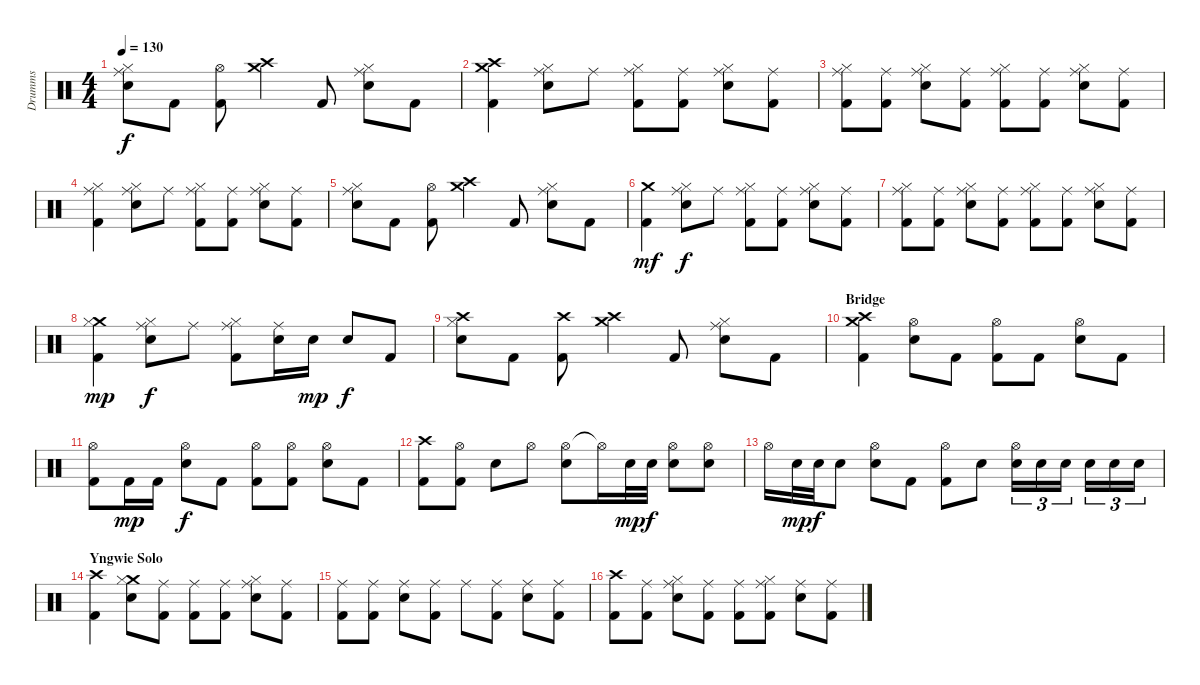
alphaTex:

\track ("Drumms" "Drumms") {instrument percussion}
\staff {score}
\articulation defaults
\ts (4 4)
\tempo 130
\clef neutral
\ks c
("Ride (middle)" "Hi-Hat (closed)" "Electric Snare (hit)").8{dy f} "Kick (hit) 2".8 ("Hi-Hat (open)" "Kick (hit) 2").8 ("Crash medium (hit)" "Crash high (hit)").4 "Kick (hit) 2".8 ("Ride (middle)" "Hi-Hat (closed)" "Electric Snare (hit)").8 "Kick (hit) 2".8 |
("Crash medium (hit)" "Crash high (hit)" "Kick (hit) 2").4 ("Ride (middle)" "Hi-Hat (closed)" "Electric Snare (hit)").8 "Ride (middle)".8 ("Ride (middle)" "Hi-Hat (closed)" "Kick (hit) 2").8 ("Ride (middle)" "Kick (hit) 2").8 ("Ride (middle)" "Hi-Hat (closed)" "Electric Snare (hit)").8 ("Ride (middle)" "Kick (hit) 2").8 |
("Ride (middle)" "Hi-Hat (closed)" "Kick (hit) 2").8 ("Ride (middle)" "Kick (hit) 2").8 ("Ride (middle)" "Hi-Hat (closed)" "Electric Snare (hit)").8 ("Ride (middle)" "Kick (hit) 2").8 ("Ride (middle)" "Hi-Hat (closed)" "Kick (hit) 2").8 ("Ride (middle)" "Kick (hit) 2").8 ("Ride (middle)" "Hi-Hat (closed)" "Electric Snare (hit)").8 ("Ride (middle)" "Kick (hit) 2").8 |
("Ride (middle)" "Hi-Hat (closed)" "Kick (hit) 2").4 ("Ride (middle)" "Hi-Hat (closed)" "Electric Snare (hit)").8 "Ride (middle)".8 ("Ride (middle)" "Hi-Hat (closed)" "Kick (hit) 2").8 ("Ride (middle)" "Kick (hit) 2").8 ("Ride (middle)" "Hi-Hat (closed)" "Electric Snare (hit)").8 ("Ride (middle)" "Kick (hit) 2").8 |
("Ride (middle)" "Hi-Hat (closed)" "Electric Snare (hit)").8 "Kick (hit) 2".8 ("Hi-Hat (open)" "Kick (hit) 2").8 ("Crash medium (hit)" "Crash high (hit)").4 "Kick (hit) 2".8 ("Ride (middle)" "Hi-Hat (closed)" "Electric Snare (hit)").8 "Kick (hit) 2".8 |
("Crash medium (hit)" "Kick (hit) 2").4{dy mf} ("Ride (middle)" "Hi-Hat (closed)" "Electric Snare (hit)").8{dy f} "Ride (middle)".8 ("Ride (middle)" "Hi-Hat (closed)" "Kick (hit) 2").8 ("Ride (middle)" "Kick (hit) 2").8 ("Ride (middle)" "Hi-Hat (closed)" "Electric Snare (hit)").8 ("Ride (middle)" "Kick (hit) 2").8 |
("Ride (middle)" "Hi-Hat (closed)" "Kick (hit) 2").8 ("Ride (middle)" "Kick (hit) 2").8 ("Ride (middle)" "Hi-Hat (closed)" "Electric Snare (hit)").8 ("Ride (middle)" "Kick (hit) 2").8 ("Ride (middle)" "Hi-Hat (closed)" "Kick (hit) 2").8 ("Ride (middle)" "Kick (hit) 2").8 ("Ride (middle)" "Hi-Hat (closed)" "Electric Snare (hit)").8 ("Ride (middle)" "Kick (hit) 2").8 |
("Crash medium (hit)" "Hi-Hat (closed)" "Kick (hit) 2").4{dy mp} ("Ride (middle)" "Hi-Hat (closed)" "Electric Snare (hit)").8{dy f} "Ride (middle)".8 ("Ride (middle)" "Hi-Hat (closed)" "Kick (hit) 2").8 ("Ride (middle)" "Electric Snare (hit)").16 "Electric Snare (hit)".16{dy mp} "Electric Snare (hit)".8{dy f} "Kick (hit) 2".8 |
("Crash high (hit)" "Hi-Hat (closed)" "Electric Snare (hit)").8 "Kick (hit) 2".8 ("Crash high (hit)" "Kick (hit) 2").8 ("Crash medium (hit)" "Crash high (hit)").4 "Kick (hit) 2".8 ("Ride (middle)" "Hi-Hat (closed)" "Electric Snare (hit)").8 "Kick (hit) 2".8 |
\section ("" "Bridge")
("Crash medium (hit)" "Crash high (hit)" "Kick (hit) 2").4 ("Hi-Hat (open)" "Electric Snare (hit)").8 "Kick (hit) 2".8 ("Hi-Hat (open)" "Kick (hit) 2").8 "Kick (hit) 2".8 ("Hi-Hat (open)" "Electric Snare (hit)").8 "Kick (hit) 2".8 |
("Hi-Hat (open)" "Kick (hit) 2").8 "Kick (hit) 2".16{dy mp} "Kick (hit) 2".16 ("Hi-Hat (open)" "Electric Snare (hit)").8{dy f} "Kick (hit) 2".8 ("Hi-Hat (open)" "Kick (hit) 2").8 ("Hi-Hat (open)" "Kick (hit) 2").8 ("Hi-Hat (open)" "Electric Snare (hit)").8 "Kick (hit) 2".8 |
("Crash high (hit)" "Kick (hit) 2").8 ("Hi-Hat (open)" "Kick (hit) 2").8 "Electric Snare (hit)".8 "Hi-Hat (open)".8 ("Hi-Hat (open)" "Electric Snare (hit)").8 "Hi-Hat (open)"{t}.16 "Electric Snare (hit)".32{dy mp} "Electric Snare (hit)".32{dy f} ("Hi-Hat (open)" "Electric Snare (hit)").8 ("Hi-Hat (open)" "Electric Snare (hit)").8 |
"Hi-Hat (open)".16 "Electric Snare (hit)".32{dy mp} "Electric Snare (hit)".32{dy f} "Electric Snare (hit)".8 ("Hi-Hat (open)" "Electric Snare (hit)").8 "Kick (hit) 2".8 ("Hi-Hat (open)" "Kick (hit) 2").8 "Electric Snare (hit)".8 ("Hi-Hat (open)" "Electric Snare (hit)").16{tu (3 2)} "Electric Snare (hit)".16{tu (3 2)} "Electric Snare (hit)".16{tu (3 2)} "Electric Snare (hit)".16{tu (3 2)} "Electric Snare (hit)".16{tu (3 2)} "Electric Snare (hit)".16{tu (3 2)} |
\section ("" "Yngwie Solo")
("Crash high (hit)" "Kick (hit) 2").4 ("Crash medium (hit)" "Hi-Hat (closed)" "Electric Snare (hit)").8 ("Ride (middle)" "Kick (hit) 2").8 ("Ride (middle)" "Kick (hit) 2").8 ("Ride (middle)" "Kick (hit) 2").8 ("Ride (middle)" "Hi-Hat (closed)" "Electric Snare (hit)").8 ("Ride (middle)" "Kick (hit) 2").8 |
("Ride (middle)" "Kick (hit) 2").8 ("Ride (middle)" "Kick (hit) 2").8 ("Ride (middle)" "Electric Snare (hit)").8 ("Ride (middle)" "Kick (hit) 2").8 "Ride (middle)".8 ("Ride (middle)" "Kick (hit) 2").8 ("Ride (middle)" "Electric Snare (hit)").8 ("Ride (middle)" "Kick (hit) 2").8 |
("Crash high (hit)" "Kick (hit) 2").8 ("Ride (middle)" "Kick (hit) 2").8 ("Ride (middle)" "Hi-Hat (closed)" "Electric Snare (hit)").8 ("Ride (middle)" "Kick (hit) 2").8 ("Ride (middle)" "Kick (hit) 2").8 ("Ride (middle)" "Hi-Hat (closed)" "Kick (hit) 2").8 ("Ride (middle)" "Electric Snare (hit)").8 ("Ride (middle)" "Kick (hit) 2").8
